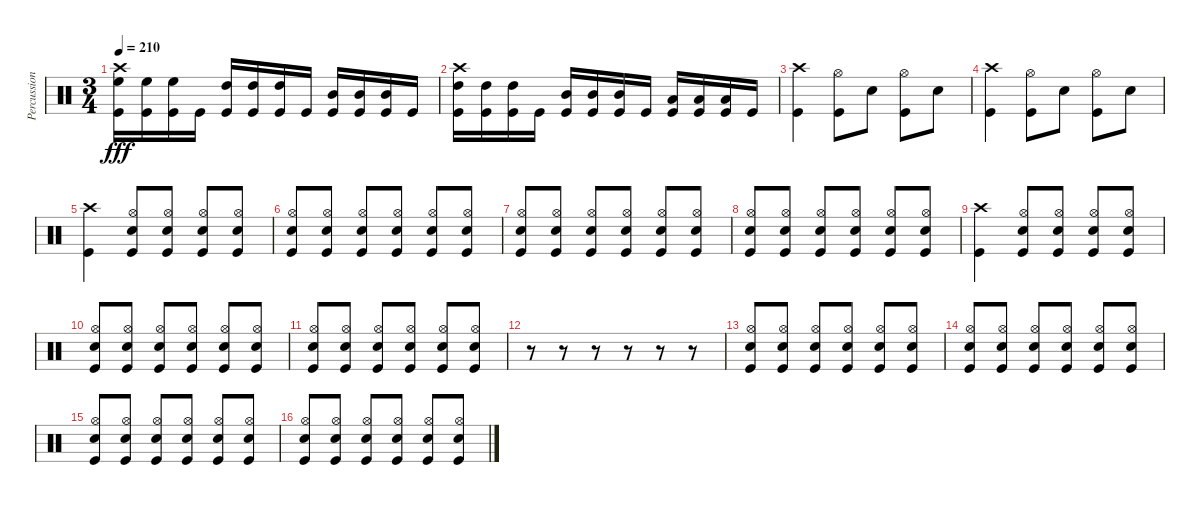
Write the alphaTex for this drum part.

\track ("Percussion" "Percussion") {instrument percussion}
\staff {score}
\articulation defaults
\ts (3 4)
\tempo 210
\clef neutral
\ks c
("Crash high (hit)" "High Floor Tom (hit)" "Kick (hit)").16{dy fff} ("High Floor Tom (hit)" "Kick (hit)").16 ("High Floor Tom (hit)" "Kick (hit)").16 "Kick (hit)".16 ("High Tom (hit)" "Kick (hit)").16 ("High Tom (hit)" "Kick (hit)").16 ("High Tom (hit)" "Kick (hit)").16 "Kick (hit)".16 ("Mid Tom (hit)" "Kick (hit)").16 ("Mid Tom (hit)" "Kick (hit)").16 ("Mid Tom (hit)" "Kick (hit)").16 "Kick (hit)".16 |
("Crash high (hit)" "High Tom (hit)" "Kick (hit)").16 ("High Tom (hit)" "Kick (hit)").16 ("High Tom (hit)" "Kick (hit)").16 "Kick (hit)".16 ("Mid Tom (hit)" "Kick (hit)").16 ("Mid Tom (hit)" "Kick (hit)").16 ("Mid Tom (hit)" "Kick (hit)").16 "Kick (hit)".16 ("Low Tom (hit)" "Kick (hit)").16 ("Low Tom (hit)" "Kick (hit)").16 ("Low Tom (hit)" "Kick (hit)").16 "Kick (hit)".16 |
("Crash high (hit)" "Kick (hit)").4 ("Hi-Hat (open)" "Kick (hit)").8 "Electric Snare (hit)".8 ("Hi-Hat (open)" "Kick (hit)").8 "Electric Snare (hit)".8 |
("Crash high (hit)" "Kick (hit)").4 ("Hi-Hat (open)" "Kick (hit)").8 "Electric Snare (hit)".8 ("Hi-Hat (open)" "Kick (hit)").8 "Electric Snare (hit)".8 |
("Crash high (hit)" "Kick (hit)").4 ("Hi-Hat (open)" "Electric Snare (hit)" "Kick (hit)").8 ("Hi-Hat (open)" "Electric Snare (hit)" "Kick (hit)").8 ("Hi-Hat (open)" "Electric Snare (hit)" "Kick (hit)").8 ("Hi-Hat (open)" "Electric Snare (hit)" "Kick (hit)").8 |
("Hi-Hat (open)" "Electric Snare (hit)" "Kick (hit)").8 ("Hi-Hat (open)" "Electric Snare (hit)" "Kick (hit)").8 ("Hi-Hat (open)" "Electric Snare (hit)" "Kick (hit)").8 ("Hi-Hat (open)" "Electric Snare (hit)" "Kick (hit)").8 ("Hi-Hat (open)" "Electric Snare (hit)" "Kick (hit)").8 ("Hi-Hat (open)" "Electric Snare (hit)" "Kick (hit)").8 |
("Hi-Hat (open)" "Electric Snare (hit)" "Kick (hit)").8 ("Hi-Hat (open)" "Electric Snare (hit)" "Kick (hit)").8 ("Hi-Hat (open)" "Electric Snare (hit)" "Kick (hit)").8 ("Hi-Hat (open)" "Electric Snare (hit)" "Kick (hit)").8 ("Hi-Hat (open)" "Electric Snare (hit)" "Kick (hit)").8 ("Hi-Hat (open)" "Electric Snare (hit)" "Kick (hit)").8 |
("Hi-Hat (open)" "Electric Snare (hit)" "Kick (hit)").8 ("Hi-Hat (open)" "Electric Snare (hit)" "Kick (hit)").8 ("Hi-Hat (open)" "Electric Snare (hit)" "Kick (hit)").8 ("Hi-Hat (open)" "Electric Snare (hit)" "Kick (hit)").8 ("Hi-Hat (open)" "Electric Snare (hit)" "Kick (hit)").8 ("Hi-Hat (open)" "Electric Snare (hit)" "Kick (hit)").8 |
("Crash high (hit)" "Kick (hit)").4 ("Hi-Hat (open)" "Electric Snare (hit)" "Kick (hit)").8 ("Hi-Hat (open)" "Electric Snare (hit)" "Kick (hit)").8 ("Hi-Hat (open)" "Electric Snare (hit)" "Kick (hit)").8 ("Hi-Hat (open)" "Electric Snare (hit)" "Kick (hit)").8 |
("Hi-Hat (open)" "Electric Snare (hit)" "Kick (hit)").8 ("Hi-Hat (open)" "Electric Snare (hit)" "Kick (hit)").8 ("Hi-Hat (open)" "Electric Snare (hit)" "Kick (hit)").8 ("Hi-Hat (open)" "Electric Snare (hit)" "Kick (hit)").8 ("Hi-Hat (open)" "Electric Snare (hit)" "Kick (hit)").8 ("Hi-Hat (open)" "Electric Snare (hit)" "Kick (hit)").8 |
("Hi-Hat (open)" "Electric Snare (hit)" "Kick (hit)").8 ("Hi-Hat (open)" "Electric Snare (hit)" "Kick (hit)").8 ("Hi-Hat (open)" "Electric Snare (hit)" "Kick (hit)").8 ("Hi-Hat (open)" "Electric Snare (hit)" "Kick (hit)").8 ("Hi-Hat (open)" "Electric Snare (hit)" "Kick (hit)").8 ("Hi-Hat (open)" "Electric Snare (hit)" "Kick (hit)").8 |
r.8 r.8 r.8 r.8 r.8 r.8 |
("Hi-Hat (open)" "Electric Snare (hit)" "Kick (hit)").8 ("Hi-Hat (open)" "Electric Snare (hit)" "Kick (hit)").8 ("Hi-Hat (open)" "Electric Snare (hit)" "Kick (hit)").8 ("Hi-Hat (open)" "Electric Snare (hit)" "Kick (hit)").8 ("Hi-Hat (open)" "Electric Snare (hit)" "Kick (hit)").8 ("Hi-Hat (open)" "Electric Snare (hit)" "Kick (hit)").8 |
("Hi-Hat (open)" "Electric Snare (hit)" "Kick (hit)").8 ("Hi-Hat (open)" "Electric Snare (hit)" "Kick (hit)").8 ("Hi-Hat (open)" "Electric Snare (hit)" "Kick (hit)").8 ("Hi-Hat (open)" "Electric Snare (hit)" "Kick (hit)").8 ("Hi-Hat (open)" "Electric Snare (hit)" "Kick (hit)").8 ("Hi-Hat (open)" "Electric Snare (hit)" "Kick (hit)").8 |
("Hi-Hat (open)" "Electric Snare (hit)" "Kick (hit)").8 ("Hi-Hat (open)" "Electric Snare (hit)" "Kick (hit)").8 ("Hi-Hat (open)" "Electric Snare (hit)" "Kick (hit)").8 ("Hi-Hat (open)" "Electric Snare (hit)" "Kick (hit)").8 ("Hi-Hat (open)" "Electric Snare (hit)" "Kick (hit)").8 ("Hi-Hat (open)" "Electric Snare (hit)" "Kick (hit)").8 |
("Hi-Hat (open)" "Electric Snare (hit)" "Kick (hit)").8 ("Hi-Hat (open)" "Electric Snare (hit)" "Kick (hit)").8 ("Hi-Hat (open)" "Electric Snare (hit)" "Kick (hit)").8 ("Hi-Hat (open)" "Electric Snare (hit)" "Kick (hit)").8 ("Hi-Hat (open)" "Electric Snare (hit)" "Kick (hit)").8 ("Hi-Hat (open)" "Electric Snare (hit)" "Kick (hit)").8
